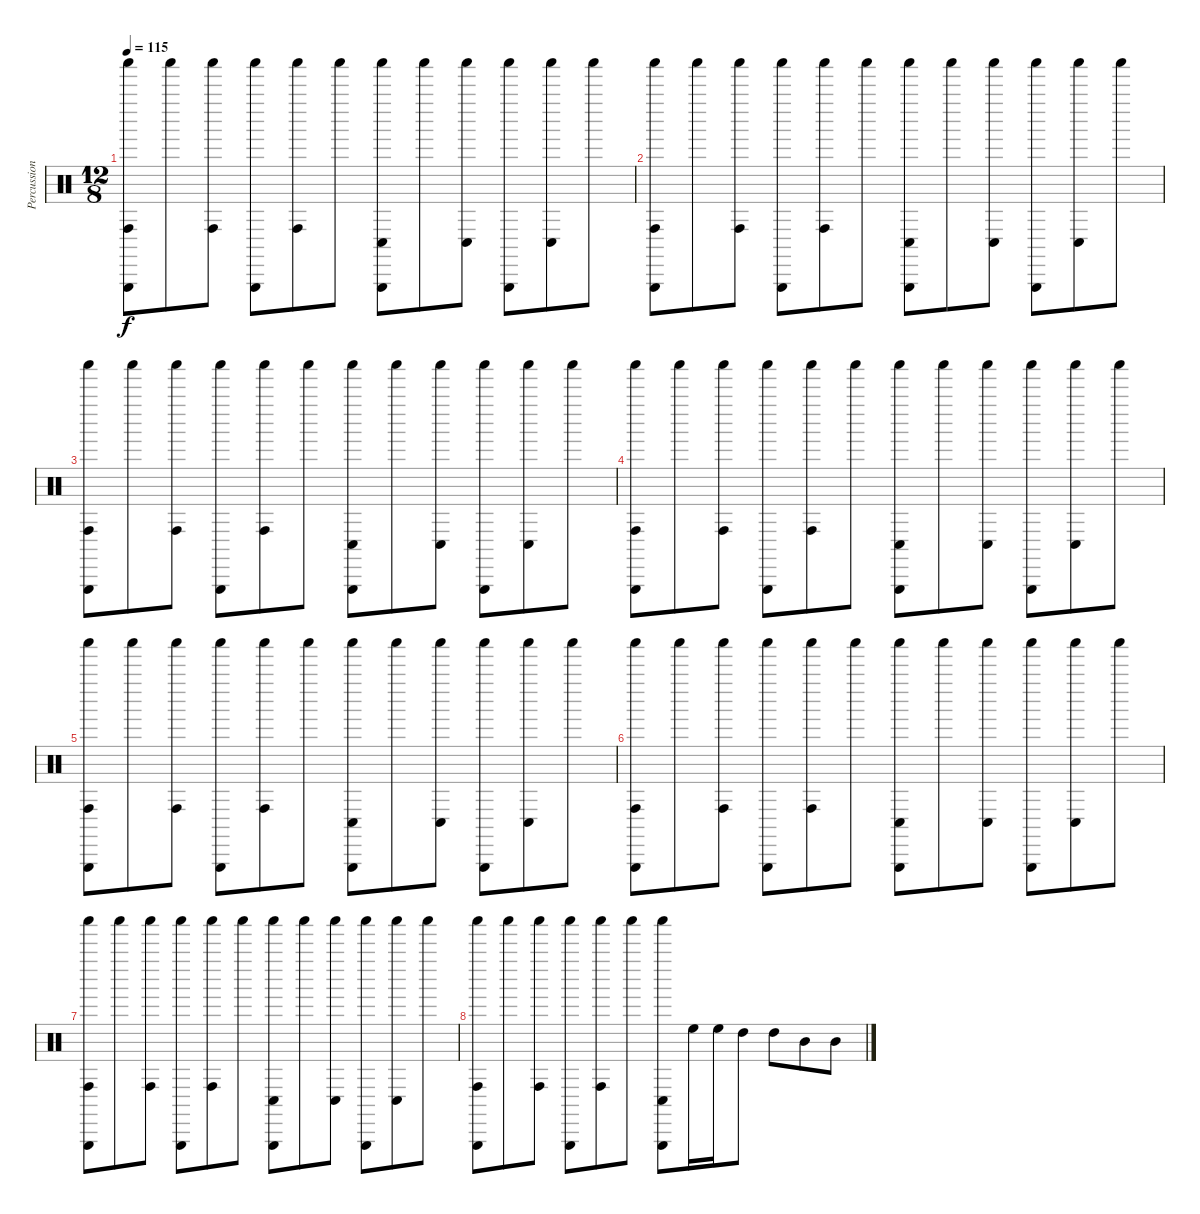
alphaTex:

\track ("Percussion" "Percussion") {instrument percussion}
\staff {score}
\articulation defaults
\ts (12 8)
\tempo 115
\clef neutral
\ks c
("Shaker (hit)" "Triangle (hit)" "Conga high (hit)").8{dy f} "Shaker (hit)".8 ("Shaker (hit)" "Conga high (hit)").8 ("Shaker (hit)" "Triangle (hit)").8 ("Shaker (hit)" "Conga high (hit)").8 "Shaker (hit)".8 ("Shaker (hit)" "Triangle (hit)" "Conga low (hit)").8 "Shaker (hit)".8 ("Shaker (hit)" "Conga low (hit)").8 ("Shaker (hit)" "Triangle (hit)").8 ("Shaker (hit)" "Conga low (hit)").8 "Shaker (hit)".8 |
("Shaker (hit)" "Triangle (hit)" "Conga high (hit)").8 "Shaker (hit)".8 ("Shaker (hit)" "Conga high (hit)").8 ("Shaker (hit)" "Triangle (hit)").8 ("Shaker (hit)" "Conga high (hit)").8 "Shaker (hit)".8 ("Shaker (hit)" "Triangle (hit)" "Conga low (hit)").8 "Shaker (hit)".8 ("Shaker (hit)" "Conga low (hit)").8 ("Shaker (hit)" "Triangle (hit)").8 ("Shaker (hit)" "Conga low (hit)").8 "Shaker (hit)".8 |
("Shaker (hit)" "Triangle (hit)" "Conga high (hit)").8 "Shaker (hit)".8 ("Shaker (hit)" "Conga high (hit)").8 ("Shaker (hit)" "Triangle (hit)").8 ("Shaker (hit)" "Conga high (hit)").8 "Shaker (hit)".8 ("Shaker (hit)" "Triangle (hit)" "Conga low (hit)").8 "Shaker (hit)".8 ("Shaker (hit)" "Conga low (hit)").8 ("Shaker (hit)" "Triangle (hit)").8 ("Shaker (hit)" "Conga low (hit)").8 "Shaker (hit)".8 |
("Shaker (hit)" "Triangle (hit)" "Conga high (hit)").8 "Shaker (hit)".8 ("Shaker (hit)" "Conga high (hit)").8 ("Shaker (hit)" "Triangle (hit)").8 ("Shaker (hit)" "Conga high (hit)").8 "Shaker (hit)".8 ("Shaker (hit)" "Triangle (hit)" "Conga low (hit)").8 "Shaker (hit)".8 ("Shaker (hit)" "Conga low (hit)").8 ("Shaker (hit)" "Triangle (hit)").8 ("Shaker (hit)" "Conga low (hit)").8 "Shaker (hit)".8 |
("Shaker (hit)" "Triangle (hit)" "Conga high (hit)").8 "Shaker (hit)".8 ("Shaker (hit)" "Conga high (hit)").8 ("Shaker (hit)" "Triangle (hit)").8 ("Shaker (hit)" "Conga high (hit)").8 "Shaker (hit)".8 ("Shaker (hit)" "Triangle (hit)" "Conga low (hit)").8 "Shaker (hit)".8 ("Shaker (hit)" "Conga low (hit)").8 ("Shaker (hit)" "Triangle (hit)").8 ("Shaker (hit)" "Conga low (hit)").8 "Shaker (hit)".8 |
("Shaker (hit)" "Triangle (hit)" "Conga high (hit)").8 "Shaker (hit)".8 ("Shaker (hit)" "Conga high (hit)").8 ("Shaker (hit)" "Triangle (hit)").8 ("Shaker (hit)" "Conga high (hit)").8 "Shaker (hit)".8 ("Shaker (hit)" "Triangle (hit)" "Conga low (hit)").8 "Shaker (hit)".8 ("Shaker (hit)" "Conga low (hit)").8 ("Shaker (hit)" "Triangle (hit)").8 ("Shaker (hit)" "Conga low (hit)").8 "Shaker (hit)".8 |
("Shaker (hit)" "Triangle (hit)" "Conga high (hit)").8 "Shaker (hit)".8 ("Shaker (hit)" "Conga high (hit)").8 ("Shaker (hit)" "Triangle (hit)").8 ("Shaker (hit)" "Conga high (hit)").8 "Shaker (hit)".8 ("Shaker (hit)" "Triangle (hit)" "Conga low (hit)").8 "Shaker (hit)".8 ("Shaker (hit)" "Conga low (hit)").8 ("Shaker (hit)" "Triangle (hit)").8 ("Shaker (hit)" "Conga low (hit)").8 "Shaker (hit)".8 |
("Shaker (hit)" "Triangle (hit)" "Conga high (hit)").8 "Shaker (hit)".8 ("Shaker (hit)" "Conga high (hit)").8 ("Shaker (hit)" "Triangle (hit)").8 ("Shaker (hit)" "Conga high (hit)").8 "Shaker (hit)".8 ("Shaker (hit)" "Triangle (hit)" "Conga low (hit)").8 "High Floor Tom (hit)".16 "High Floor Tom (hit)".16 "High Tom (hit)".8 "High Tom (hit)".8 "Mid Tom (hit)".8 "Mid Tom (hit)".8
